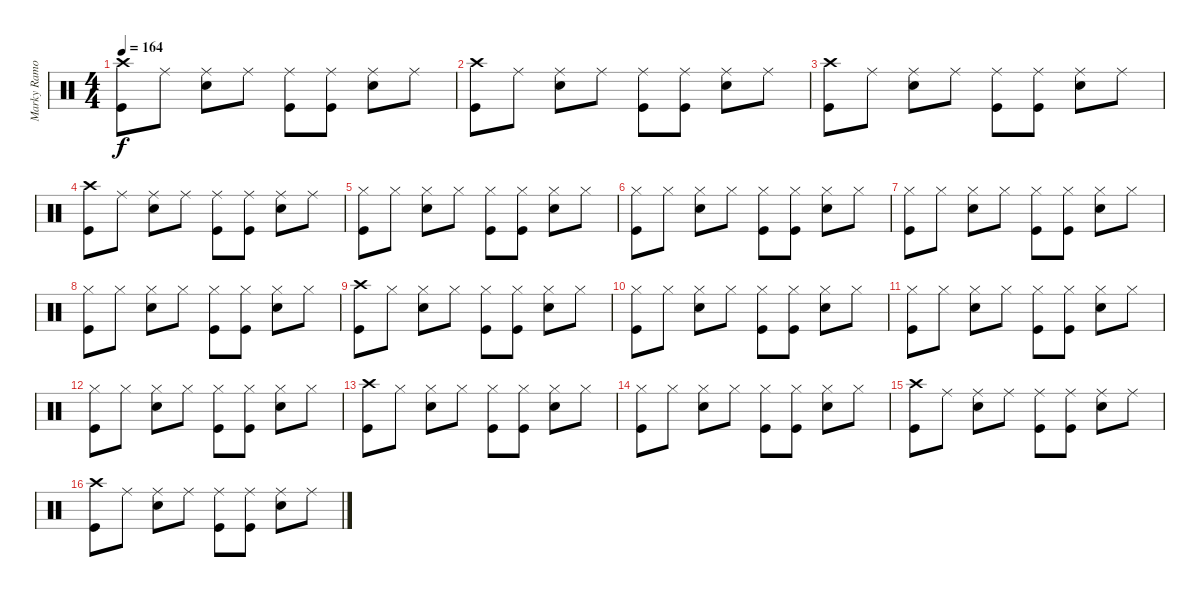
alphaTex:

\track ("Marky Ramone (Drums)" "Marky Ramo") {instrument percussion}
\staff {score}
\articulation defaults
\ts (4 4)
\tempo 164
\clef neutral
\ks c
("Crash high (hit)" "Kick (hit)").8{dy f} "Ride (middle)".8 ("Ride (middle)" "Snare (hit) 2").8 "Ride (middle)".8 ("Ride (middle)" "Kick (hit)").8 ("Ride (middle)" "Kick (hit)").8 ("Ride (middle)" "Snare (hit) 2").8 "Ride (middle)".8 |
("Crash high (hit)" "Kick (hit)").8 "Ride (middle)".8 ("Ride (middle)" "Snare (hit) 2").8 "Ride (middle)".8 ("Ride (middle)" "Kick (hit)").8 ("Ride (middle)" "Kick (hit)").8 ("Ride (middle)" "Snare (hit) 2").8 "Ride (middle)".8 |
("Crash high (hit)" "Kick (hit)").8 "Ride (middle)".8 ("Ride (middle)" "Snare (hit) 2").8 "Ride (middle)".8 ("Ride (middle)" "Kick (hit)").8 ("Ride (middle)" "Kick (hit)").8 ("Ride (middle)" "Snare (hit) 2").8 "Ride (middle)".8 |
("Crash high (hit)" "Kick (hit)").8 "Ride (middle)".8 ("Ride (middle)" "Snare (hit) 2").8 "Ride (middle)".8 ("Ride (middle)" "Kick (hit)").8 ("Ride (middle)" "Kick (hit)").8 ("Ride (middle)" "Snare (hit) 2").8 "Ride (middle)".8 |
("Hi-Hat (closed)" "Kick (hit)").8 "Hi-Hat (closed)".8 ("Hi-Hat (closed)" "Snare (hit) 2").8 "Hi-Hat (closed)".8 ("Hi-Hat (closed)" "Kick (hit)").8 ("Hi-Hat (closed)" "Kick (hit)").8 ("Hi-Hat (closed)" "Snare (hit) 2").8 "Hi-Hat (closed)".8 |
("Hi-Hat (closed)" "Kick (hit)").8 "Hi-Hat (closed)".8 ("Hi-Hat (closed)" "Snare (hit) 2").8 "Hi-Hat (closed)".8 ("Hi-Hat (closed)" "Kick (hit)").8 ("Hi-Hat (closed)" "Kick (hit)").8 ("Hi-Hat (closed)" "Snare (hit) 2").8 "Hi-Hat (closed)".8 |
("Hi-Hat (closed)" "Kick (hit)").8 "Hi-Hat (closed)".8 ("Hi-Hat (closed)" "Snare (hit) 2").8 "Hi-Hat (closed)".8 ("Hi-Hat (closed)" "Kick (hit)").8 ("Hi-Hat (closed)" "Kick (hit)").8 ("Hi-Hat (closed)" "Snare (hit) 2").8 "Hi-Hat (closed)".8 |
("Hi-Hat (closed)" "Kick (hit)").8 "Hi-Hat (closed)".8 ("Hi-Hat (closed)" "Snare (hit) 2").8 "Hi-Hat (closed)".8 ("Hi-Hat (closed)" "Kick (hit)").8 ("Hi-Hat (closed)" "Kick (hit)").8 ("Hi-Hat (closed)" "Snare (hit) 2").8 "Hi-Hat (closed)".8 |
("Crash high (hit)" "Kick (hit)").8 "Hi-Hat (closed)".8 ("Hi-Hat (closed)" "Snare (hit) 2").8 "Hi-Hat (closed)".8 ("Hi-Hat (closed)" "Kick (hit)").8 ("Hi-Hat (closed)" "Kick (hit)").8 ("Hi-Hat (closed)" "Snare (hit) 2").8 "Hi-Hat (closed)".8 |
("Hi-Hat (closed)" "Kick (hit)").8 "Hi-Hat (closed)".8 ("Hi-Hat (closed)" "Snare (hit) 2").8 "Hi-Hat (closed)".8 ("Hi-Hat (closed)" "Kick (hit)").8 ("Hi-Hat (closed)" "Kick (hit)").8 ("Hi-Hat (closed)" "Snare (hit) 2").8 "Hi-Hat (closed)".8 |
("Hi-Hat (closed)" "Kick (hit)").8 "Hi-Hat (closed)".8 ("Hi-Hat (closed)" "Snare (hit) 2").8 "Hi-Hat (closed)".8 ("Hi-Hat (closed)" "Kick (hit)").8 ("Hi-Hat (closed)" "Kick (hit)").8 ("Hi-Hat (closed)" "Snare (hit) 2").8 "Hi-Hat (closed)".8 |
("Hi-Hat (closed)" "Kick (hit)").8 "Hi-Hat (closed)".8 ("Hi-Hat (closed)" "Snare (hit) 2").8 "Hi-Hat (closed)".8 ("Hi-Hat (closed)" "Kick (hit)").8 ("Hi-Hat (closed)" "Kick (hit)").8 ("Hi-Hat (closed)" "Snare (hit) 2").8 "Hi-Hat (closed)".8 |
("Crash high (hit)" "Kick (hit)").8 "Hi-Hat (closed)".8 ("Hi-Hat (closed)" "Snare (hit) 2").8 "Hi-Hat (closed)".8 ("Hi-Hat (closed)" "Kick (hit)").8 ("Hi-Hat (closed)" "Kick (hit)").8 ("Hi-Hat (closed)" "Snare (hit) 2").8 "Hi-Hat (closed)".8 |
("Hi-Hat (closed)" "Kick (hit)").8 "Hi-Hat (closed)".8 ("Hi-Hat (closed)" "Snare (hit) 2").8 "Hi-Hat (closed)".8 ("Hi-Hat (closed)" "Kick (hit)").8 ("Hi-Hat (closed)" "Kick (hit)").8 ("Hi-Hat (closed)" "Snare (hit) 2").8 "Hi-Hat (closed)".8 |
("Crash high (hit)" "Kick (hit)").8 "Ride (middle)".8 ("Ride (middle)" "Snare (hit) 2").8 "Ride (middle)".8 ("Ride (middle)" "Kick (hit)").8 ("Ride (middle)" "Kick (hit)").8 ("Ride (middle)" "Snare (hit) 2").8 "Ride (middle)".8 |
("Crash high (hit)" "Kick (hit)").8 "Ride (middle)".8 ("Ride (middle)" "Snare (hit) 2").8 "Ride (middle)".8 ("Ride (middle)" "Kick (hit)").8 ("Ride (middle)" "Kick (hit)").8 ("Ride (middle)" "Snare (hit) 2").8 "Ride (middle)".8
